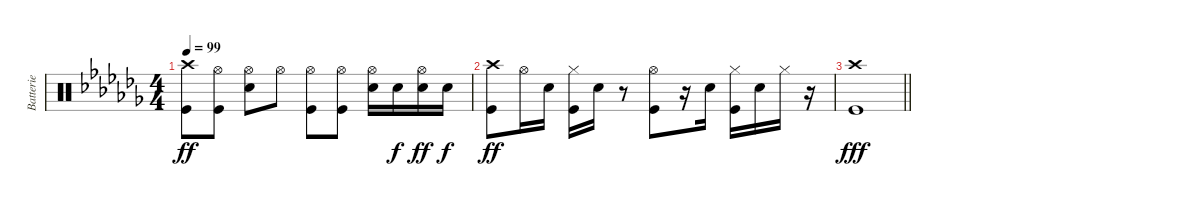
\track ("Batterie" "Batterie") {instrument percussion}
\staff {score}
\articulation defaults
\ts (4 4)
\tempo 99
\clef neutral
\ks cb
("Crash high (hit)" "Kick (hit)").8{dy ff} ("Hi-Hat (open)" "Kick (hit)").8 ("Hi-Hat (open)" "Snare (hit) 2").8 "Hi-Hat (open)".8 ("Hi-Hat (open)" "Kick (hit)").8 ("Hi-Hat (open)" "Kick (hit)").8 ("Hi-Hat (open)" "Snare (hit) 2").16 "Snare (hit) 2".16{dy f} ("Hi-Hat (open)" "Snare (hit) 2").16{dy ff} "Snare (hit) 2".16{dy f} |
("Crash high (hit)" "Kick (hit)").8{dy ff} "Hi-Hat (open)".16 "Snare (hit) 2".16 ("Hi-Hat (closed)" "Kick (hit)").16 "Snare (hit) 2".16 r.8 ("Hi-Hat (open)" "Kick (hit)").8 r.16 "Snare (hit) 2".16 ("Hi-Hat (closed)" "Kick (hit)").16 "Snare (hit) 2".16 "Hi-Hat (closed)".16 r.16 |
\barLineRight lightlight
("Crash high (hit)" "Kick (hit)").1{dy fff}
